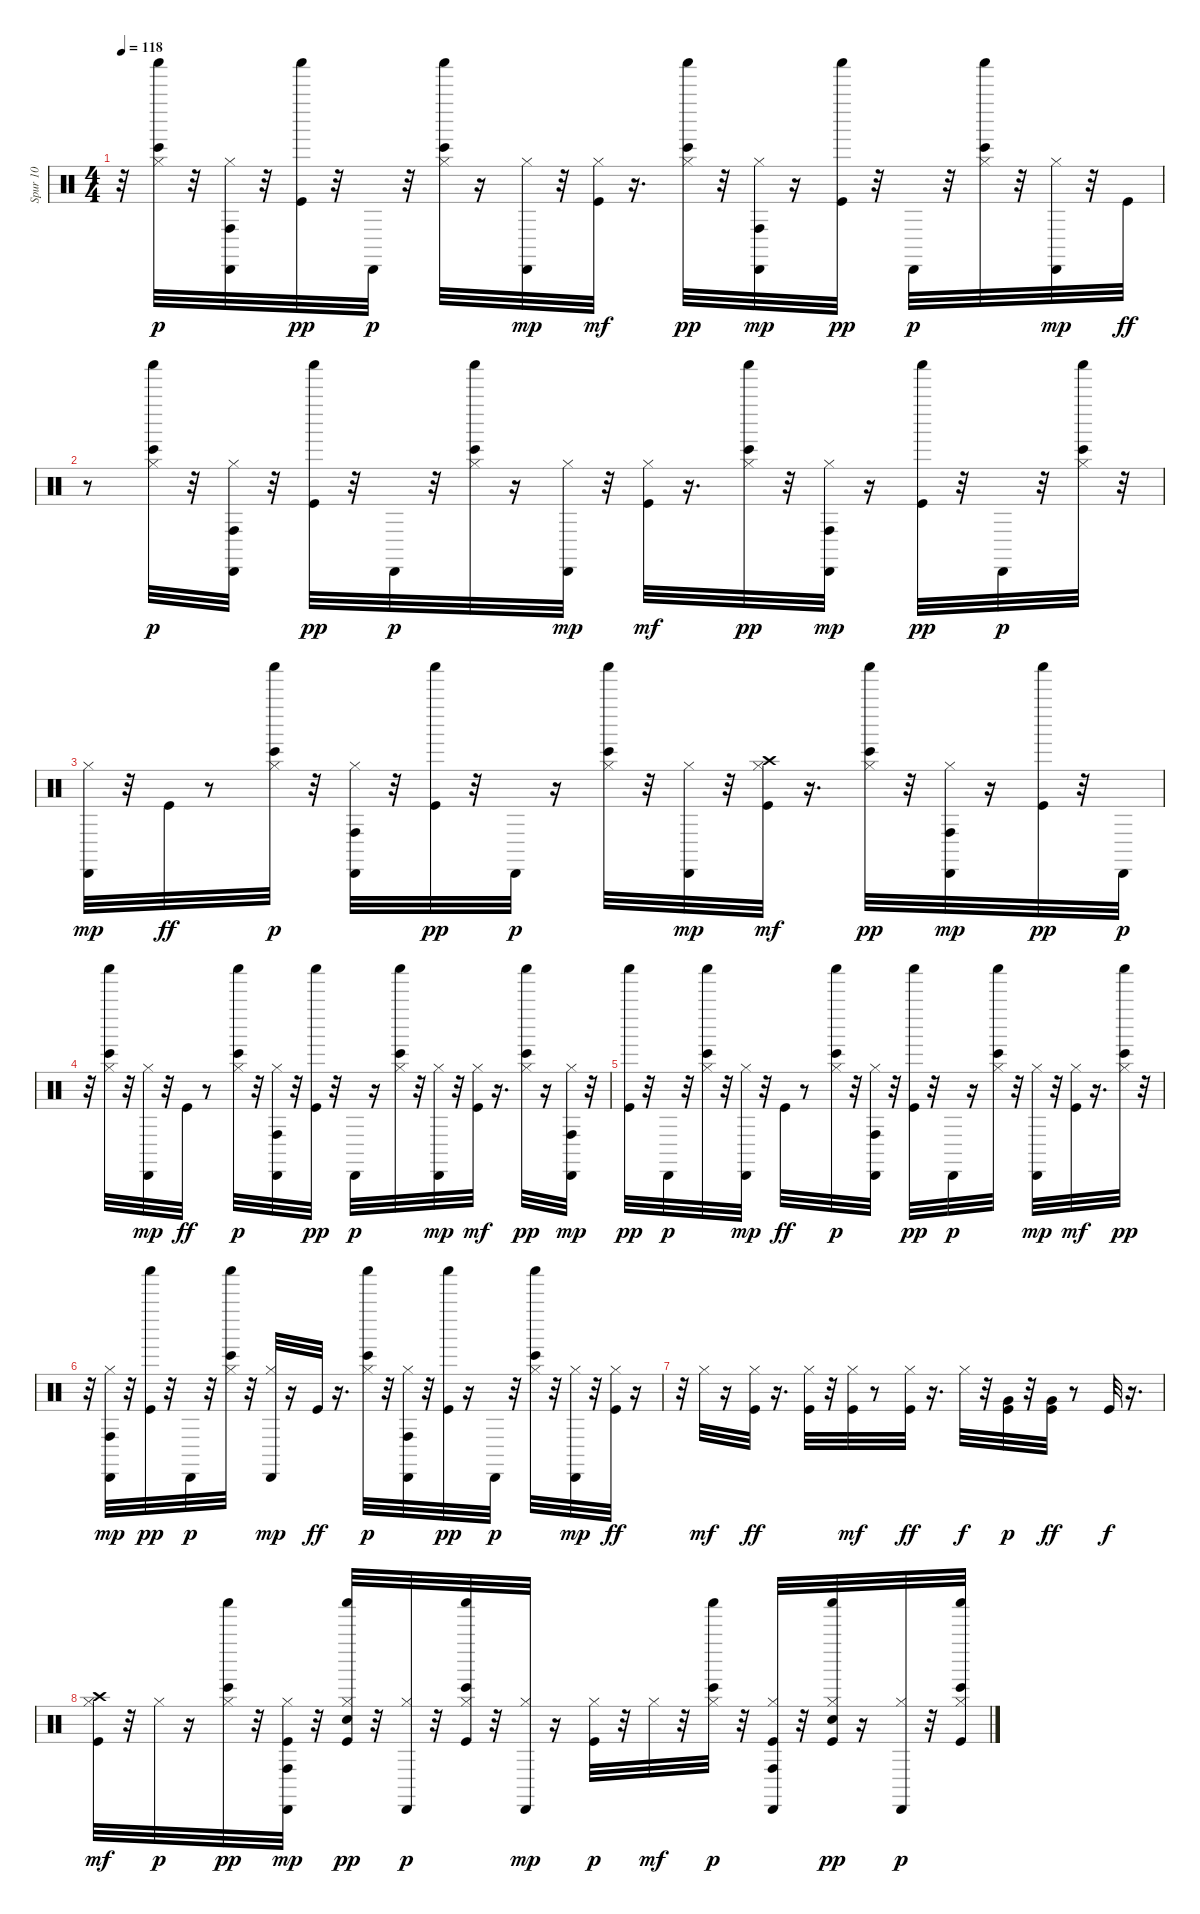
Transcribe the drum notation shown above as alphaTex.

\track ("Spur 10" "Spur 10") {instrument percussion}
\staff {score}
\articulation defaults
\ts (4 4)
\tempo 118
\clef neutral
\ks c
r.32{dy ff} ("Hi-Hat (closed)" "Bongo High (hit)" "Shaker (hit)").32{dy p} r.32 ("Hi-Hat (closed)" "Conga high (hit)" "Cabasa (hit)").32 r.32 ("Kick (hit)" "Shaker (hit)").32{dy pp} r.32 "Cabasa (hit)".32{dy p} r.32 ("Hi-Hat (closed)" "Bongo High (hit)" "Shaker (hit)").32 r.16 ("Hi-Hat (closed)" "Cabasa (hit)").32{dy mp} r.32 ("Kick (hit)" "Hi-Hat (closed)").32{dy mf} r.16{d} ("Hi-Hat (closed)" "Bongo High (hit)" "Shaker (hit)").32{dy pp} r.32 ("Hi-Hat (closed)" "Conga high (hit)" "Cabasa (hit)").32{dy mp} r.16 ("Kick (hit)" "Shaker (hit)").32{dy pp} r.32 "Cabasa (hit)".32{dy p} r.32 ("Hi-Hat (closed)" "Bongo High (hit)" "Shaker (hit)").32 r.32 ("Hi-Hat (closed)" "Cabasa (hit)").32{dy mp} r.32 "Kick (hit)".32{dy ff} |
r.8 ("Hi-Hat (closed)" "Bongo High (hit)" "Shaker (hit)").32{dy p} r.32 ("Hi-Hat (closed)" "Conga high (hit)" "Cabasa (hit)").32 r.32 ("Kick (hit)" "Shaker (hit)").32{dy pp} r.32 "Cabasa (hit)".32{dy p} r.32 ("Hi-Hat (closed)" "Bongo High (hit)" "Shaker (hit)").32 r.16 ("Hi-Hat (closed)" "Cabasa (hit)").32{dy mp} r.32 ("Kick (hit)" "Hi-Hat (closed)").32{dy mf} r.16{d} ("Hi-Hat (closed)" "Bongo High (hit)" "Shaker (hit)").32{dy pp} r.32 ("Hi-Hat (closed)" "Conga high (hit)" "Cabasa (hit)").32{dy mp} r.16 ("Kick (hit)" "Shaker (hit)").32{dy pp} r.32 "Cabasa (hit)".32{dy p} r.32 ("Hi-Hat (closed)" "Bongo High (hit)" "Shaker (hit)").32 r.32 |
("Hi-Hat (closed)" "Cabasa (hit)").32{dy mp} r.32 "Kick (hit)".32{dy ff} r.8 ("Hi-Hat (closed)" "Bongo High (hit)" "Shaker (hit)").32{dy p} r.32 ("Hi-Hat (closed)" "Conga high (hit)" "Cabasa (hit)").32 r.32 ("Kick (hit)" "Shaker (hit)").32{dy pp} r.32 "Cabasa (hit)".32{dy p} r.16 ("Hi-Hat (closed)" "Bongo High (hit)" "Shaker (hit)").32 r.32 ("Hi-Hat (closed)" "Cabasa (hit)").32{dy mp} r.32 ("Kick (hit)" "Hi-Hat (closed)" "Crash high (hit)").32{dy mf} r.16{d} ("Hi-Hat (closed)" "Bongo High (hit)" "Shaker (hit)").32{dy pp} r.32 ("Hi-Hat (closed)" "Conga high (hit)" "Cabasa (hit)").32{dy mp} r.16 ("Kick (hit)" "Shaker (hit)").32{dy pp} r.32 "Cabasa (hit)".32{dy p} |
r.32 ("Hi-Hat (closed)" "Bongo High (hit)" "Shaker (hit)").32 r.32 ("Hi-Hat (closed)" "Cabasa (hit)").32{dy mp} r.32 "Kick (hit)".32{dy ff} r.8 ("Hi-Hat (closed)" "Bongo High (hit)" "Shaker (hit)").32{dy p} r.32 ("Hi-Hat (closed)" "Conga high (hit)" "Cabasa (hit)").32 r.32 ("Kick (hit)" "Shaker (hit)").32{dy pp} r.32 "Cabasa (hit)".32{dy p} r.16 ("Hi-Hat (closed)" "Bongo High (hit)" "Shaker (hit)").32 r.32 ("Hi-Hat (closed)" "Cabasa (hit)").32{dy mp} r.32 ("Kick (hit)" "Hi-Hat (closed)").32{dy mf} r.16{d} ("Hi-Hat (closed)" "Bongo High (hit)" "Shaker (hit)").32{dy pp} r.16 ("Hi-Hat (closed)" "Conga high (hit)" "Cabasa (hit)").32{dy mp} r.32 |
("Kick (hit)" "Shaker (hit)").32{dy pp} r.32 "Cabasa (hit)".32{dy p} r.32 ("Hi-Hat (closed)" "Bongo High (hit)" "Shaker (hit)").32 r.32 ("Hi-Hat (closed)" "Cabasa (hit)").32{dy mp} r.32 "Kick (hit)".32{dy ff} r.8 ("Hi-Hat (closed)" "Bongo High (hit)" "Shaker (hit)").32{dy p} r.32 ("Hi-Hat (closed)" "Conga high (hit)" "Cabasa (hit)").32 r.32 ("Kick (hit)" "Shaker (hit)").32{dy pp} r.32 "Cabasa (hit)".32{dy p} r.16 ("Hi-Hat (closed)" "Bongo High (hit)" "Shaker (hit)").32 r.32 ("Hi-Hat (closed)" "Cabasa (hit)").32{dy mp} r.32 ("Kick (hit)" "Hi-Hat (closed)").32{dy mf} r.16{d} ("Hi-Hat (closed)" "Bongo High (hit)" "Shaker (hit)").32{dy pp} r.32 |
r.32 ("Hi-Hat (closed)" "Conga high (hit)" "Cabasa (hit)").32{dy mp} r.32 ("Kick (hit)" "Shaker (hit)").32{dy pp} r.32 "Cabasa (hit)".32{dy p} r.32 ("Hi-Hat (closed)" "Bongo High (hit)" "Shaker (hit)").32 r.32 ("Hi-Hat (closed)" "Cabasa (hit)").32{dy mp} r.16 "Kick (hit)".32{dy ff} r.16{d} ("Hi-Hat (closed)" "Bongo High (hit)" "Shaker (hit)").32{dy p} r.32 ("Hi-Hat (closed)" "Conga high (hit)" "Cabasa (hit)").32 r.32 ("Kick (hit)" "Shaker (hit)").32{dy pp} r.16 "Cabasa (hit)".32{dy p} r.32 ("Hi-Hat (closed)" "Bongo High (hit)" "Shaker (hit)").32 r.32 ("Hi-Hat (closed)" "Cabasa (hit)").32{dy mp} r.32 ("Kick (hit)" "Hi-Hat (closed)").32{dy ff} r.16 |
r.32 "Hi-Hat (closed)".32{dy mf} r.16 ("Kick (hit)" "Hi-Hat (closed)").32{dy ff} r.16{d} ("Kick (hit)" "Hi-Hat (closed)").32 r.32 ("Kick (hit)" "Hi-Hat (closed)").32{dy mf} r.8 ("Kick (hit)" "Hi-Hat (closed)").32{dy ff} r.16{d} "Hi-Hat (closed)".32{dy f} r.32 ("Kick (hit)" "Very Low Tom (hit)").32{dy p} r.32 ("Kick (hit)" "Very Low Tom (hit)").32{dy ff} r.8 "Kick (hit)".32{dy f} r.16{d} |
("Kick (hit)" "Hi-Hat (closed)" "Crash high (hit)").32{dy mf} r.32 "Hi-Hat (closed)".32{dy p} r.16 ("Hi-Hat (closed)" "Bongo High (hit)" "Shaker (hit)").32{dy pp} r.32 ("Kick (hit)" "Hi-Hat (closed)" "Conga high (hit)" "Cabasa (hit)").32{dy mp} r.32 ("Kick (hit)" "Snare (hit) 2" "Hi-Hat (closed)" "Shaker (hit)").32{dy pp} r.32 ("Hi-Hat (closed)" "Cabasa (hit)").32{dy p} r.32 ("Kick (hit)" "Hi-Hat (closed)" "Bongo High (hit)" "Shaker (hit)").32 r.32 ("Hi-Hat (closed)" "Cabasa (hit)").32{dy mp} r.16 ("Kick (hit)" "Hi-Hat (closed)").32{dy p} r.32 "Hi-Hat (closed)".32{dy mf} r.32 ("Hi-Hat (closed)" "Bongo High (hit)" "Shaker (hit)").32{dy p} r.32 ("Kick (hit)" "Hi-Hat (closed)" "Conga high (hit)" "Cabasa (hit)").32 r.32 ("Kick (hit)" "Snare (hit) 2" "Hi-Hat (closed)" "Shaker (hit)").32{dy pp} r.16 ("Hi-Hat (closed)" "Cabasa (hit)").32{dy p} r.32 ("Kick (hit)" "Hi-Hat (closed)" "Bongo High (hit)" "Shaker (hit)").32
